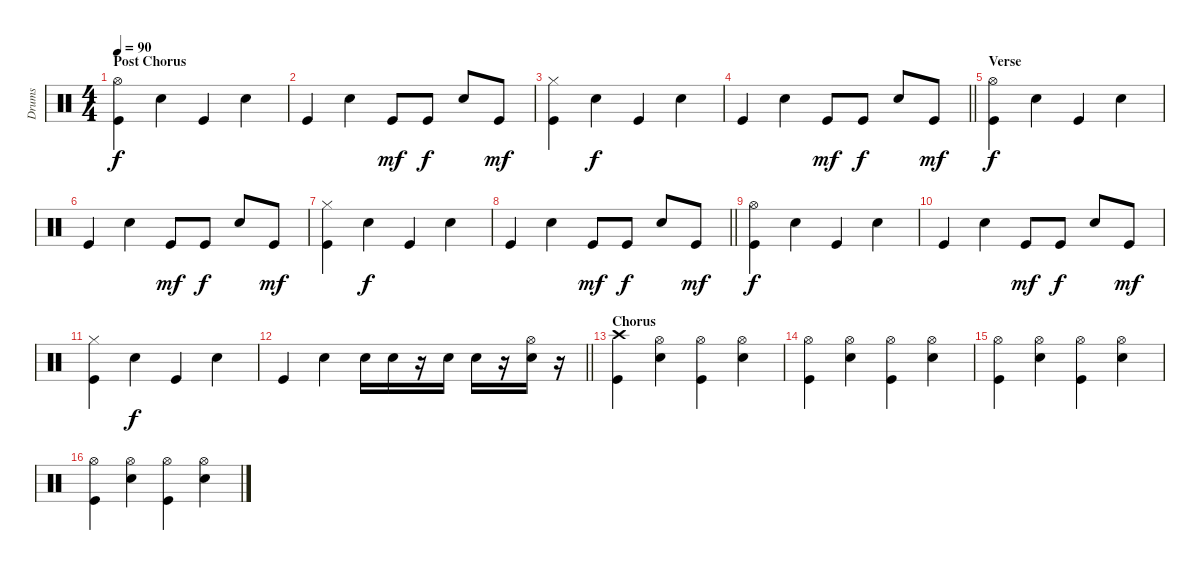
\track ("Drums" "Drums") {instrument percussion}
\staff {score}
\articulation defaults
\ts (4 4)
\section ("" "Post Chorus")
\tempo 90
\clef neutral
\ks c
("Hi-Hat (open)" "Kick (hit)").4{dy f} "Snare (hit) 2".4 "Kick (hit)".4 "Snare (hit) 2".4 |
"Kick (hit)".4 "Snare (hit) 2".4 "Kick (hit)".8{dy mf} "Kick (hit)".8{dy f} "Snare (hit) 2".8 "Kick (hit)".8{dy mf} |
("Hi-Hat (closed)" "Kick (hit)").4 "Snare (hit) 2".4{dy f} "Kick (hit)".4 "Snare (hit) 2".4 |
\barLineRight lightlight "Kick (hit)".4 "Snare (hit) 2".4 "Kick (hit)".8{dy mf} "Kick (hit)".8{dy f} "Snare (hit) 2".8 "Kick (hit)".8{dy mf}
|
\section ("" "Verse")
("Hi-Hat (open)" "Kick (hit)").4{dy f} "Snare (hit) 2".4 "Kick (hit)".4 "Snare (hit) 2".4 |
"Kick (hit)".4 "Snare (hit) 2".4 "Kick (hit)".8{dy mf} "Kick (hit)".8{dy f} "Snare (hit) 2".8 "Kick (hit)".8{dy mf} |
("Hi-Hat (closed)" "Kick (hit)").4 "Snare (hit) 2".4{dy f} "Kick (hit)".4 "Snare (hit) 2".4 |
\barLineRight lightlight "Kick (hit)".4 "Snare (hit) 2".4 "Kick (hit)".8{dy mf} "Kick (hit)".8{dy f} "Snare (hit) 2".8 "Kick (hit)".8{dy mf}
|
("Hi-Hat (open)" "Kick (hit)").4{dy f} "Snare (hit) 2".4 "Kick (hit)".4 "Snare (hit) 2".4 |
"Kick (hit)".4 "Snare (hit) 2".4 "Kick (hit)".8{dy mf} "Kick (hit)".8{dy f} "Snare (hit) 2".8 "Kick (hit)".8{dy mf} |
("Hi-Hat (closed)" "Kick (hit)").4 "Snare (hit) 2".4{dy f} "Kick (hit)".4 "Snare (hit) 2".4 |
\barLineRight lightlight "Kick (hit)".4 "Snare (hit) 2".4 "Snare (hit) 2".16 "Snare (hit) 2".16
r.16 "Snare (hit) 2".16 "Snare (hit) 2".16 r.16 ("Hi-Hat (open)" "Snare (hit) 2").16 r.16 |
\section ("" "Chorus")
("Crash high (hit)" "Kick (hit)").4 ("Hi-Hat (open)" "Snare (hit) 2").4 ("Hi-Hat (open)" "Kick (hit)").4 ("Hi-Hat (open)" "Snare (hit) 2").4 |
("Hi-Hat (open)" "Kick (hit)").4 ("Hi-Hat (open)" "Snare (hit) 2").4 ("Hi-Hat (open)" "Kick (hit)").4 ("Hi-Hat (open)" "Snare (hit) 2").4 |
("Hi-Hat (open)" "Kick (hit)").4 ("Hi-Hat (open)" "Snare (hit) 2").4 ("Hi-Hat (open)" "Kick (hit)").4 ("Hi-Hat (open)" "Snare (hit) 2").4 |
("Hi-Hat (open)" "Kick (hit)").4 ("Hi-Hat (open)" "Snare (hit) 2").4 ("Hi-Hat (open)" "Kick (hit)").4 ("Hi-Hat (open)" "Snare (hit) 2").4
